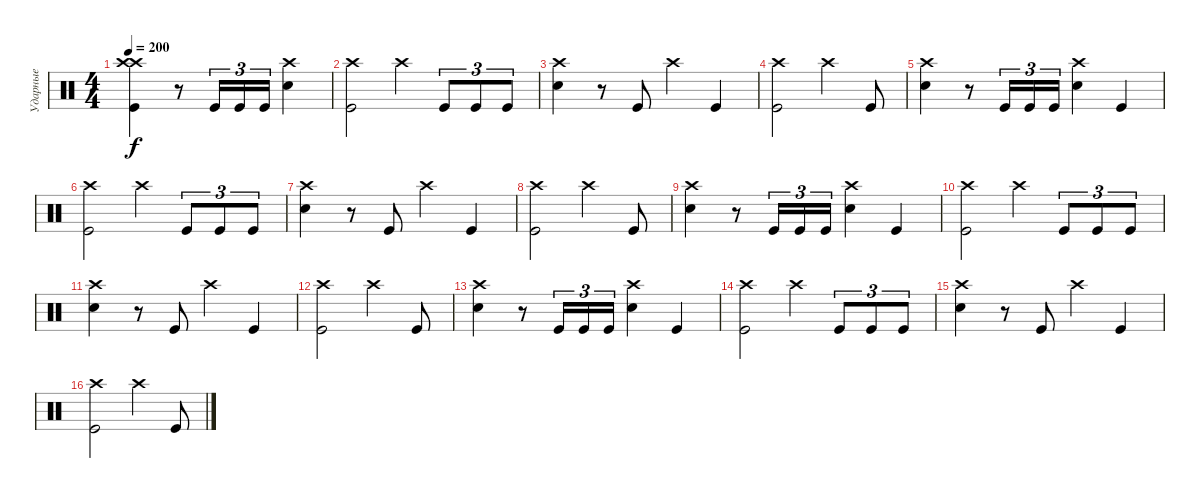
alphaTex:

\track ("Ударные" "Ударные") {instrument percussion}
\staff {score}
\articulation defaults
\ts (4 4)
\tempo 200
\clef neutral
\ks c
("Kick (hit)" "Crash high (hit)" "Crash high (hit)").4{dy f} r.8 "Kick (hit)".16{tu (3 2)} "Kick (hit)".16{tu (3 2)} "Kick (hit)".16{tu (3 2)} ("Snare (hit) 2" "Crash high (hit)").4 |
("Crash high (hit)" "Kick (hit)").2 "Crash high (hit)".4 "Kick (hit)".8{tu (3 2)} "Kick (hit)".8{tu (3 2)} "Kick (hit)".8{tu (3 2)} |
("Snare (hit) 2" "Crash high (hit)").4 r.8 "Kick (hit)".8 "Crash high (hit)".4 "Kick (hit)".4 |
("Kick (hit)" "Crash high (hit)").2 "Crash high (hit)".4 "Kick (hit)".8 |
("Snare (hit) 2" "Crash high (hit)").4 r.8 "Kick (hit)".16{tu (3 2)} "Kick (hit)".16{tu (3 2)} "Kick (hit)".16{tu (3 2)} ("Snare (hit) 2" "Crash high (hit)").4 "Kick (hit)".4 |
("Crash high (hit)" "Kick (hit)").2 "Crash high (hit)".4 "Kick (hit)".8{tu (3 2)} "Kick (hit)".8{tu (3 2)} "Kick (hit)".8{tu (3 2)} |
("Snare (hit) 2" "Crash high (hit)").4 r.8 "Kick (hit)".8 "Crash high (hit)".4 "Kick (hit)".4 |
("Kick (hit)" "Crash high (hit)").2 "Crash high (hit)".4 "Kick (hit)".8 |
("Snare (hit) 2" "Crash high (hit)").4 r.8 "Kick (hit)".16{tu (3 2)} "Kick (hit)".16{tu (3 2)} "Kick (hit)".16{tu (3 2)} ("Snare (hit) 2" "Crash high (hit)").4 "Kick (hit)".4 |
("Crash high (hit)" "Kick (hit)").2 "Crash high (hit)".4 "Kick (hit)".8{tu (3 2)} "Kick (hit)".8{tu (3 2)} "Kick (hit)".8{tu (3 2)} |
("Snare (hit) 2" "Crash high (hit)").4 r.8 "Kick (hit)".8 "Crash high (hit)".4 "Kick (hit)".4 |
("Kick (hit)" "Crash high (hit)").2 "Crash high (hit)".4 "Kick (hit)".8 |
("Snare (hit) 2" "Crash high (hit)").4 r.8 "Kick (hit)".16{tu (3 2)} "Kick (hit)".16{tu (3 2)} "Kick (hit)".16{tu (3 2)} ("Snare (hit) 2" "Crash high (hit)").4 "Kick (hit)".4 |
("Crash high (hit)" "Kick (hit)").2 "Crash high (hit)".4 "Kick (hit)".8{tu (3 2)} "Kick (hit)".8{tu (3 2)} "Kick (hit)".8{tu (3 2)} |
("Snare (hit) 2" "Crash high (hit)").4 r.8 "Kick (hit)".8 "Crash high (hit)".4 "Kick (hit)".4 |
("Kick (hit)" "Crash high (hit)").2 "Crash high (hit)".4 "Kick (hit)".8
